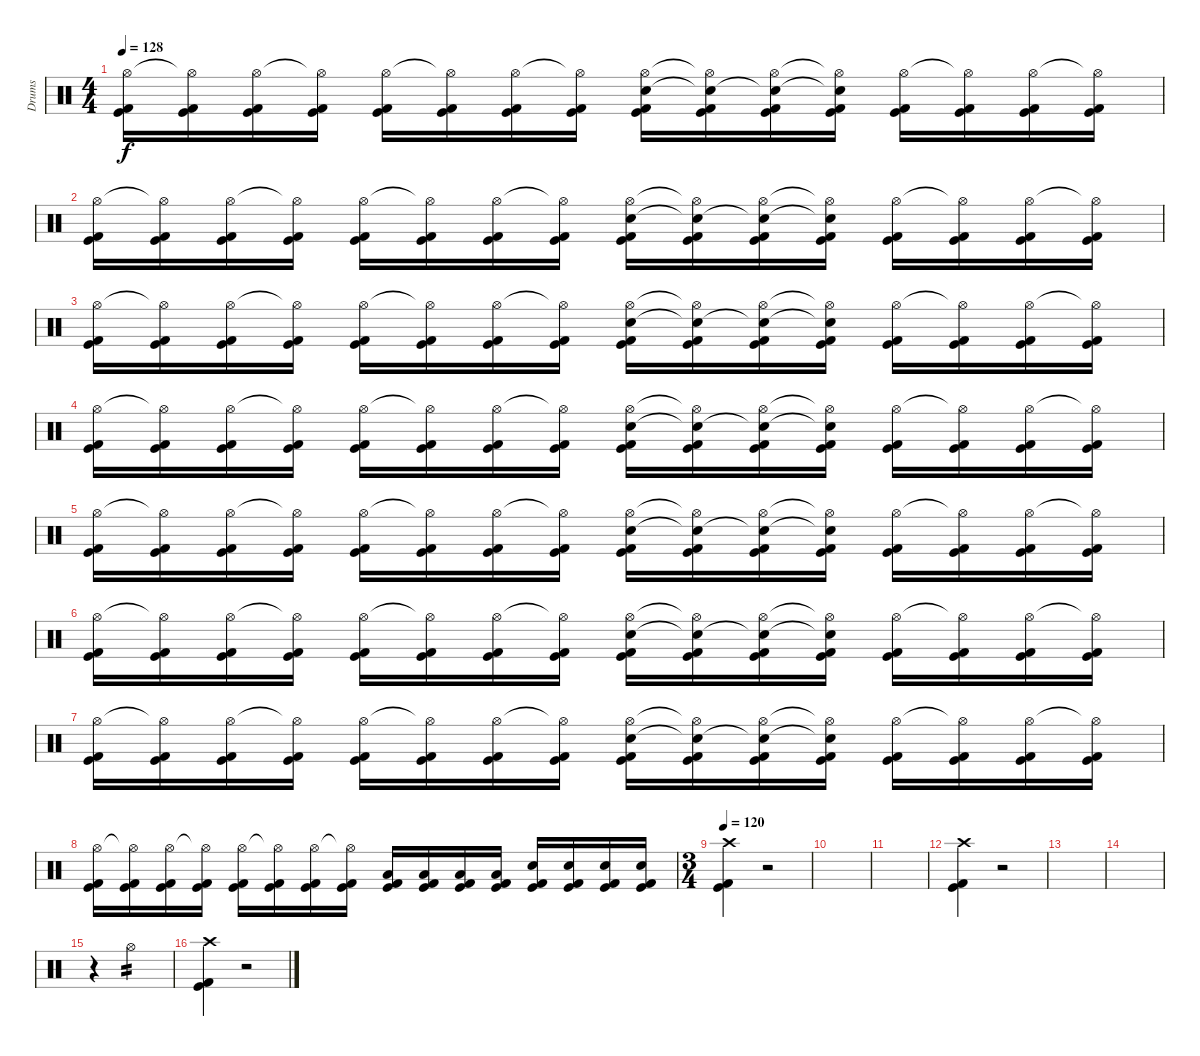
\track ("Drums" "Drums") {instrument percussion}
\staff {score}
\articulation defaults
\ts (4 4)
\tempo 128
\clef neutral
\ks c
("Hi-Hat (open)" "Kick (hit) 2" "Kick (hit)").16{dy f} ("Hi-Hat (open)"{t} "Kick (hit) 2" "Kick (hit)").16 ("Hi-Hat (open)" "Kick (hit) 2" "Kick (hit)").16 ("Hi-Hat (open)"{t} "Kick (hit) 2" "Kick (hit)").16 ("Hi-Hat (open)" "Kick (hit) 2" "Kick (hit)").16 ("Hi-Hat (open)"{t} "Kick (hit) 2" "Kick (hit)").16 ("Hi-Hat (open)" "Kick (hit) 2" "Kick (hit)").16 ("Hi-Hat (open)"{t} "Kick (hit) 2" "Kick (hit)").16 ("Hi-Hat (open)" "Snare (hit) 2" "Kick (hit) 2" "Kick (hit)").16 ("Hi-Hat (open)"{t} "Snare (hit) 2"{t} "Kick (hit) 2" "Kick (hit)").16 ("Hi-Hat (open)" "Snare (hit) 2"{t} "Kick (hit) 2" "Kick (hit)").16 ("Hi-Hat (open)"{t} "Snare (hit) 2"{t} "Kick (hit) 2" "Kick (hit)").16 ("Hi-Hat (open)" "Kick (hit) 2" "Kick (hit)").16 ("Hi-Hat (open)"{t} "Kick (hit) 2" "Kick (hit)").16 ("Hi-Hat (open)" "Kick (hit) 2" "Kick (hit)").16 ("Hi-Hat (open)"{t} "Kick (hit) 2" "Kick (hit)").16 |
("Hi-Hat (open)" "Kick (hit) 2" "Kick (hit)").16 ("Hi-Hat (open)"{t} "Kick (hit) 2" "Kick (hit)").16 ("Hi-Hat (open)" "Kick (hit) 2" "Kick (hit)").16 ("Hi-Hat (open)"{t} "Kick (hit) 2" "Kick (hit)").16 ("Hi-Hat (open)" "Kick (hit) 2" "Kick (hit)").16 ("Hi-Hat (open)"{t} "Kick (hit) 2" "Kick (hit)").16 ("Hi-Hat (open)" "Kick (hit) 2" "Kick (hit)").16 ("Hi-Hat (open)"{t} "Kick (hit) 2" "Kick (hit)").16 ("Hi-Hat (open)" "Snare (hit) 2" "Kick (hit) 2" "Kick (hit)").16 ("Hi-Hat (open)"{t} "Snare (hit) 2"{t} "Kick (hit) 2" "Kick (hit)").16 ("Hi-Hat (open)" "Snare (hit) 2"{t} "Kick (hit) 2" "Kick (hit)").16 ("Hi-Hat (open)"{t} "Snare (hit) 2"{t} "Kick (hit) 2" "Kick (hit)").16 ("Hi-Hat (open)" "Kick (hit) 2" "Kick (hit)").16 ("Hi-Hat (open)"{t} "Kick (hit) 2" "Kick (hit)").16 ("Hi-Hat (open)" "Kick (hit) 2" "Kick (hit)").16 ("Hi-Hat (open)"{t} "Kick (hit) 2" "Kick (hit)").16 |
("Hi-Hat (open)" "Kick (hit) 2" "Kick (hit)").16 ("Hi-Hat (open)"{t} "Kick (hit) 2" "Kick (hit)").16 ("Hi-Hat (open)" "Kick (hit) 2" "Kick (hit)").16 ("Hi-Hat (open)"{t} "Kick (hit) 2" "Kick (hit)").16 ("Hi-Hat (open)" "Kick (hit) 2" "Kick (hit)").16 ("Hi-Hat (open)"{t} "Kick (hit) 2" "Kick (hit)").16 ("Hi-Hat (open)" "Kick (hit) 2" "Kick (hit)").16 ("Hi-Hat (open)"{t} "Kick (hit) 2" "Kick (hit)").16 ("Hi-Hat (open)" "Snare (hit) 2" "Kick (hit) 2" "Kick (hit)").16 ("Hi-Hat (open)"{t} "Snare (hit) 2"{t} "Kick (hit) 2" "Kick (hit)").16 ("Hi-Hat (open)" "Snare (hit) 2"{t} "Kick (hit) 2" "Kick (hit)").16 ("Hi-Hat (open)"{t} "Snare (hit) 2"{t} "Kick (hit) 2" "Kick (hit)").16 ("Hi-Hat (open)" "Kick (hit) 2" "Kick (hit)").16 ("Hi-Hat (open)"{t} "Kick (hit) 2" "Kick (hit)").16 ("Hi-Hat (open)" "Kick (hit) 2" "Kick (hit)").16 ("Hi-Hat (open)"{t} "Kick (hit) 2" "Kick (hit)").16 |
("Hi-Hat (open)" "Kick (hit) 2" "Kick (hit)").16 ("Hi-Hat (open)"{t} "Kick (hit) 2" "Kick (hit)").16 ("Hi-Hat (open)" "Kick (hit) 2" "Kick (hit)").16 ("Hi-Hat (open)"{t} "Kick (hit) 2" "Kick (hit)").16 ("Hi-Hat (open)" "Kick (hit) 2" "Kick (hit)").16 ("Hi-Hat (open)"{t} "Kick (hit) 2" "Kick (hit)").16 ("Hi-Hat (open)" "Kick (hit) 2" "Kick (hit)").16 ("Hi-Hat (open)"{t} "Kick (hit) 2" "Kick (hit)").16 ("Hi-Hat (open)" "Snare (hit) 2" "Kick (hit) 2" "Kick (hit)").16 ("Hi-Hat (open)"{t} "Snare (hit) 2"{t} "Kick (hit) 2" "Kick (hit)").16 ("Hi-Hat (open)" "Snare (hit) 2"{t} "Kick (hit) 2" "Kick (hit)").16 ("Hi-Hat (open)"{t} "Snare (hit) 2"{t} "Kick (hit) 2" "Kick (hit)").16 ("Hi-Hat (open)" "Kick (hit) 2" "Kick (hit)").16 ("Hi-Hat (open)"{t} "Kick (hit) 2" "Kick (hit)").16 ("Hi-Hat (open)" "Kick (hit) 2" "Kick (hit)").16 ("Hi-Hat (open)"{t} "Kick (hit) 2" "Kick (hit)").16 |
("Hi-Hat (open)" "Kick (hit) 2" "Kick (hit)").16 ("Hi-Hat (open)"{t} "Kick (hit) 2" "Kick (hit)").16 ("Hi-Hat (open)" "Kick (hit) 2" "Kick (hit)").16 ("Hi-Hat (open)"{t} "Kick (hit) 2" "Kick (hit)").16 ("Hi-Hat (open)" "Kick (hit) 2" "Kick (hit)").16 ("Hi-Hat (open)"{t} "Kick (hit) 2" "Kick (hit)").16 ("Hi-Hat (open)" "Kick (hit) 2" "Kick (hit)").16 ("Hi-Hat (open)"{t} "Kick (hit) 2" "Kick (hit)").16 ("Hi-Hat (open)" "Snare (hit) 2" "Kick (hit) 2" "Kick (hit)").16 ("Hi-Hat (open)"{t} "Snare (hit) 2"{t} "Kick (hit) 2" "Kick (hit)").16 ("Hi-Hat (open)" "Snare (hit) 2"{t} "Kick (hit) 2" "Kick (hit)").16 ("Hi-Hat (open)"{t} "Snare (hit) 2"{t} "Kick (hit) 2" "Kick (hit)").16 ("Hi-Hat (open)" "Kick (hit) 2" "Kick (hit)").16 ("Hi-Hat (open)"{t} "Kick (hit) 2" "Kick (hit)").16 ("Hi-Hat (open)" "Kick (hit) 2" "Kick (hit)").16 ("Hi-Hat (open)"{t} "Kick (hit) 2" "Kick (hit)").16 |
("Hi-Hat (open)" "Kick (hit) 2" "Kick (hit)").16 ("Hi-Hat (open)"{t} "Kick (hit) 2" "Kick (hit)").16 ("Hi-Hat (open)" "Kick (hit) 2" "Kick (hit)").16 ("Hi-Hat (open)"{t} "Kick (hit) 2" "Kick (hit)").16 ("Hi-Hat (open)" "Kick (hit) 2" "Kick (hit)").16 ("Hi-Hat (open)"{t} "Kick (hit) 2" "Kick (hit)").16 ("Hi-Hat (open)" "Kick (hit) 2" "Kick (hit)").16 ("Hi-Hat (open)"{t} "Kick (hit) 2" "Kick (hit)").16 ("Hi-Hat (open)" "Snare (hit) 2" "Kick (hit) 2" "Kick (hit)").16 ("Hi-Hat (open)"{t} "Snare (hit) 2"{t} "Kick (hit) 2" "Kick (hit)").16 ("Hi-Hat (open)" "Snare (hit) 2"{t} "Kick (hit) 2" "Kick (hit)").16 ("Hi-Hat (open)"{t} "Snare (hit) 2"{t} "Kick (hit) 2" "Kick (hit)").16 ("Hi-Hat (open)" "Kick (hit) 2" "Kick (hit)").16 ("Hi-Hat (open)"{t} "Kick (hit) 2" "Kick (hit)").16 ("Hi-Hat (open)" "Kick (hit) 2" "Kick (hit)").16 ("Hi-Hat (open)"{t} "Kick (hit) 2" "Kick (hit)").16 |
("Hi-Hat (open)" "Kick (hit) 2" "Kick (hit)").16 ("Hi-Hat (open)"{t} "Kick (hit) 2" "Kick (hit)").16 ("Hi-Hat (open)" "Kick (hit) 2" "Kick (hit)").16 ("Hi-Hat (open)"{t} "Kick (hit) 2" "Kick (hit)").16 ("Hi-Hat (open)" "Kick (hit) 2" "Kick (hit)").16 ("Hi-Hat (open)"{t} "Kick (hit) 2" "Kick (hit)").16 ("Hi-Hat (open)" "Kick (hit) 2" "Kick (hit)").16 ("Hi-Hat (open)"{t} "Kick (hit) 2" "Kick (hit)").16 ("Hi-Hat (open)" "Snare (hit) 2" "Kick (hit) 2" "Kick (hit)").16 ("Hi-Hat (open)"{t} "Snare (hit) 2"{t} "Kick (hit) 2" "Kick (hit)").16 ("Hi-Hat (open)" "Snare (hit) 2"{t} "Kick (hit) 2" "Kick (hit)").16 ("Hi-Hat (open)"{t} "Snare (hit) 2"{t} "Kick (hit) 2" "Kick (hit)").16 ("Hi-Hat (open)" "Kick (hit) 2" "Kick (hit)").16 ("Hi-Hat (open)"{t} "Kick (hit) 2" "Kick (hit)").16 ("Hi-Hat (open)" "Kick (hit) 2" "Kick (hit)").16 ("Hi-Hat (open)"{t} "Kick (hit) 2" "Kick (hit)").16 |
("Hi-Hat (open)" "Kick (hit) 2" "Kick (hit)").16 ("Hi-Hat (open)"{t} "Kick (hit) 2" "Kick (hit)").16 ("Hi-Hat (open)" "Kick (hit) 2" "Kick (hit)").16 ("Hi-Hat (open)"{t} "Kick (hit) 2" "Kick (hit)").16 ("Hi-Hat (open)" "Kick (hit) 2" "Kick (hit)").16 ("Hi-Hat (open)"{t} "Kick (hit) 2" "Kick (hit)").16 ("Hi-Hat (open)" "Kick (hit) 2" "Kick (hit)").16 ("Hi-Hat (open)"{t} "Kick (hit) 2" "Kick (hit)").16 ("Low Tom (hit)" "Kick (hit) 2" "Kick (hit)").16 ("Low Tom (hit)" "Kick (hit) 2" "Kick (hit)").16 ("Low Tom (hit)" "Kick (hit) 2" "Kick (hit)").16 ("Low Tom (hit)" "Kick (hit) 2" "Kick (hit)").16 ("Snare (hit) 2" "Kick (hit) 2" "Kick (hit)").16 ("Snare (hit) 2" "Kick (hit) 2" "Kick (hit)").16 ("Snare (hit) 2" "Kick (hit) 2" "Kick (hit)").16 ("Snare (hit) 2" "Kick (hit) 2" "Kick (hit)").16 |
\ts (3 4)
\tempo 120
("Crash high (hit)" "Kick (hit) 2" "Kick (hit)").4 r.2 |
|
|
("Crash high (hit)" "Kick (hit) 2" "Kick (hit)").4 r.2 |
|
|
r.4 "Hi-Hat (open)".2{tp 2} |
("Crash high (hit)" "Kick (hit) 2" "Kick (hit)").4 r.2
